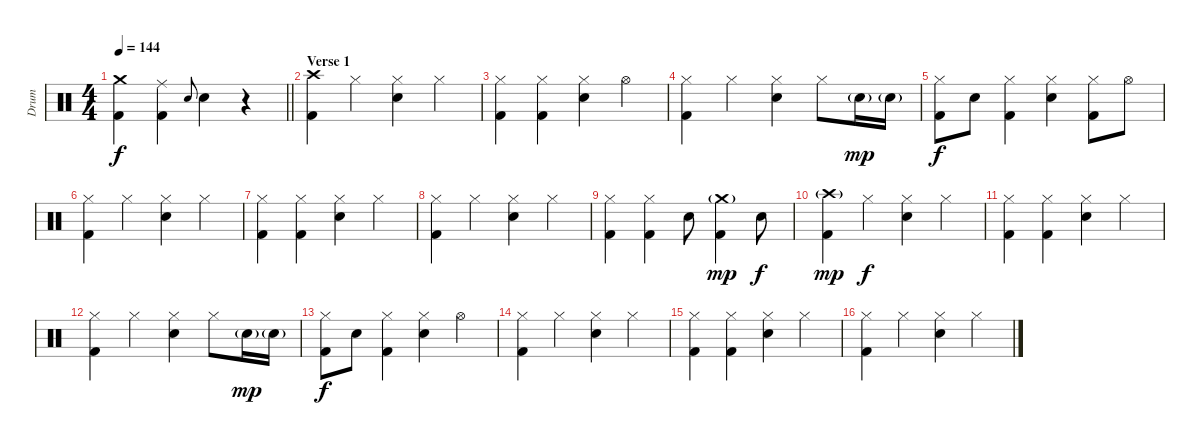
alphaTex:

\track ("Drum" "Drum") {instrument percussion}
\staff {score}
\articulation defaults
\ts (4 4)
\tempo 144
\clef neutral
\barLineRight lightlight
\ks c
("Crash medium (hit)" "Kick (hit) 2").4{dy f} ("Ride (middle)" "Kick (hit) 2").4 "Electric Snare (hit)".8{gr onbeat} "Electric Snare (hit)".4 r.4 |
\section ("" "Verse 1")
("Crash high (hit)" "Kick (hit) 2").4 "Hi-Hat (closed)".4 ("Hi-Hat (closed)" "Electric Snare (hit)").4 "Hi-Hat (closed)".4 |
("Hi-Hat (closed)" "Kick (hit) 2").4 ("Hi-Hat (closed)" "Kick (hit) 2").4 ("Hi-Hat (closed)" "Electric Snare (hit)").4 "Hi-Hat (open)".4 |
("Hi-Hat (closed)" "Kick (hit) 2").4 "Hi-Hat (closed)".4 ("Hi-Hat (closed)" "Electric Snare (hit)").4 "Hi-Hat (closed)".8 "Electric Snare (hit)"{g}.16{dy mp} "Electric Snare (hit)"{g}.16 |
("Hi-Hat (closed)" "Kick (hit) 2").8{dy f} "Electric Snare (hit)".8 ("Hi-Hat (closed)" "Kick (hit) 2").4 ("Hi-Hat (closed)" "Electric Snare (hit)").4 ("Hi-Hat (closed)" "Kick (hit) 2").8 "Hi-Hat (open)".8 |
("Hi-Hat (closed)" "Kick (hit) 2").4 "Hi-Hat (closed)".4 ("Hi-Hat (closed)" "Electric Snare (hit)").4 "Hi-Hat (closed)".4 |
("Hi-Hat (closed)" "Kick (hit) 2").4 ("Hi-Hat (closed)" "Kick (hit) 2").4 ("Hi-Hat (closed)" "Electric Snare (hit)").4 "Hi-Hat (closed)".4 |
("Hi-Hat (closed)" "Kick (hit) 2").4 "Hi-Hat (closed)".4 ("Hi-Hat (closed)" "Electric Snare (hit)").4 "Hi-Hat (closed)".4 |
("Hi-Hat (closed)" "Kick (hit) 2").4 ("Hi-Hat (closed)" "Kick (hit) 2").4 "Electric Snare (hit)".8 ("Crash medium (hit)"{g} "Kick (hit) 2").4{dy mp} "Electric Snare (hit)".8{dy f} |
("Crash high (hit)"{g} "Kick (hit) 2").4{dy mp} "Hi-Hat (closed)".4{dy f} ("Hi-Hat (closed)" "Electric Snare (hit)").4 "Hi-Hat (closed)".4 |
("Hi-Hat (closed)" "Kick (hit) 2").4 ("Hi-Hat (closed)" "Kick (hit) 2").4 ("Hi-Hat (closed)" "Electric Snare (hit)").4 "Hi-Hat (closed)".4 |
("Hi-Hat (closed)" "Kick (hit) 2").4 "Hi-Hat (closed)".4 ("Hi-Hat (closed)" "Electric Snare (hit)").4 "Hi-Hat (closed)".8 "Electric Snare (hit)"{g}.16{dy mp} "Electric Snare (hit)"{g}.16 |
("Hi-Hat (closed)" "Kick (hit) 2").8{dy f} "Electric Snare (hit)".8 ("Hi-Hat (closed)" "Kick (hit) 2").4 ("Hi-Hat (closed)" "Electric Snare (hit)").4 "Hi-Hat (open)".4 |
("Hi-Hat (closed)" "Kick (hit) 2").4 "Hi-Hat (closed)".4 ("Hi-Hat (closed)" "Electric Snare (hit)").4 "Hi-Hat (closed)".4 |
("Hi-Hat (closed)" "Kick (hit) 2").4 ("Hi-Hat (closed)" "Kick (hit) 2").4 ("Hi-Hat (closed)" "Electric Snare (hit)").4 "Hi-Hat (closed)".4 |
("Hi-Hat (closed)" "Kick (hit) 2").4 "Hi-Hat (closed)".4 ("Hi-Hat (closed)" "Electric Snare (hit)").4 "Hi-Hat (closed)".4
